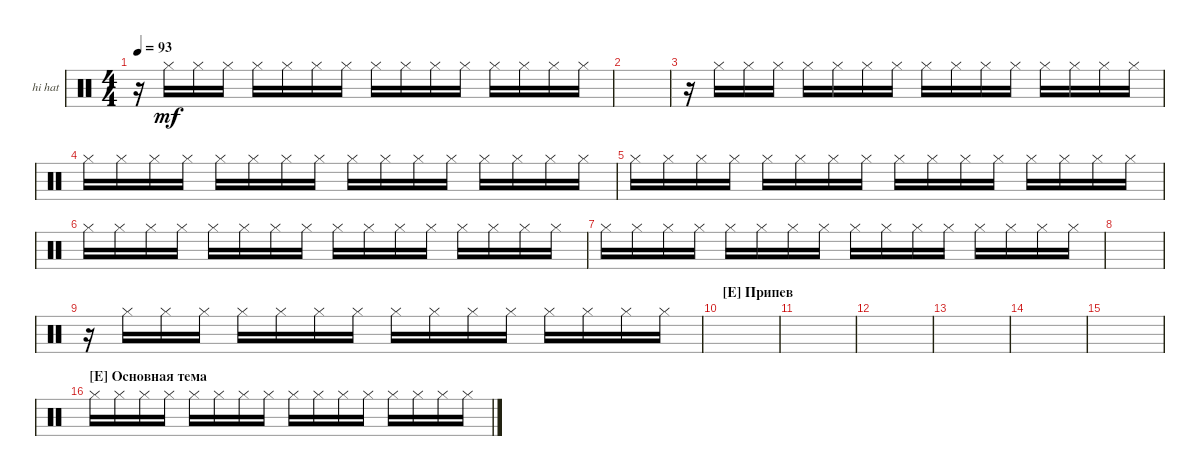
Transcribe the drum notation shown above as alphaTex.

\bracketExtendMode groupsimilarinstruments
\firstSystemTrackNameOrientation horizontal
\otherSystemsTrackNameOrientation horizontal
\track ("hi hat" "hi hat") {instrument percussion}
\staff {score}
\articulation defaults
\ts (4 4)
\tempo 93
\clef neutral
\scale
0.333333
\ks c
r.16{dy mf} "Hi-Hat (closed)".16 "Hi-Hat (closed)".16 "Hi-Hat (closed)".16 "Hi-Hat (closed)".16 "Hi-Hat (closed)".16 "Hi-Hat (closed)".16 "Hi-Hat (closed)".16 "Hi-Hat (closed)".16 "Hi-Hat (closed)".16 "Hi-Hat (closed)".16 "Hi-Hat (closed)".16 "Hi-Hat (closed)".16 "Hi-Hat (closed)".16 "Hi-Hat (closed)".16 "Hi-Hat (closed)".16 |
\scale
0.333333 |
\scale
0.333333 r.16 "Hi-Hat (closed)".16 "Hi-Hat (closed)".16 "Hi-Hat (closed)".16 "Hi-Hat (closed)".16 "Hi-Hat (closed)".16 "Hi-Hat (closed)".16 "Hi-Hat (closed)".16 "Hi-Hat (closed)".16 "Hi-Hat (closed)".16 "Hi-Hat (closed)".16 "Hi-Hat (closed)".16 "Hi-Hat (closed)".16 "Hi-Hat (closed)".16 "Hi-Hat (closed)".16 "Hi-Hat (closed)".16 |
\scale
0.333333 "Hi-Hat (closed)".16 "Hi-Hat (closed)".16 "Hi-Hat (closed)".16 "Hi-Hat (closed)".16 "Hi-Hat (closed)".16 "Hi-Hat (closed)".16 "Hi-Hat (closed)".16 "Hi-Hat (closed)".16 "Hi-Hat (closed)".16 "Hi-Hat (closed)".16 "Hi-Hat (closed)".16 "Hi-Hat (closed)".16 "Hi-Hat (closed)".16 "Hi-Hat (closed)".16 "Hi-Hat (closed)".16 "Hi-Hat (closed)".16 |
\scale
0.333333 "Hi-Hat (closed)".16 "Hi-Hat (closed)".16 "Hi-Hat (closed)".16 "Hi-Hat (closed)".16 "Hi-Hat (closed)".16 "Hi-Hat (closed)".16 "Hi-Hat (closed)".16 "Hi-Hat (closed)".16 "Hi-Hat (closed)".16 "Hi-Hat (closed)".16 "Hi-Hat (closed)".16 "Hi-Hat (closed)".16 "Hi-Hat (closed)".16 "Hi-Hat (closed)".16 "Hi-Hat (closed)".16 "Hi-Hat (closed)".16 |
\scale
0.333333 "Hi-Hat (closed)".16 "Hi-Hat (closed)".16 "Hi-Hat (closed)".16 "Hi-Hat (closed)".16 "Hi-Hat (closed)".16 "Hi-Hat (closed)".16 "Hi-Hat (closed)".16 "Hi-Hat (closed)".16 "Hi-Hat (closed)".16 "Hi-Hat (closed)".16 "Hi-Hat (closed)".16 "Hi-Hat (closed)".16 "Hi-Hat (closed)".16 "Hi-Hat (closed)".16 "Hi-Hat (closed)".16 "Hi-Hat (closed)".16 |
\scale
0.333333 "Hi-Hat (closed)".16 "Hi-Hat (closed)".16 "Hi-Hat (closed)".16 "Hi-Hat (closed)".16 "Hi-Hat (closed)".16 "Hi-Hat (closed)".16 "Hi-Hat (closed)".16 "Hi-Hat (closed)".16 "Hi-Hat (closed)".16 "Hi-Hat (closed)".16 "Hi-Hat (closed)".16 "Hi-Hat (closed)".16 "Hi-Hat (closed)".16 "Hi-Hat (closed)".16 "Hi-Hat (closed)".16 "Hi-Hat (closed)".16 |
\scale
0.333333 |
\scale
0.333333 r.16 "Hi-Hat (closed)".16 "Hi-Hat (closed)".16 "Hi-Hat (closed)".16 "Hi-Hat (closed)".16 "Hi-Hat (closed)".16 "Hi-Hat (closed)".16 "Hi-Hat (closed)".16 "Hi-Hat (closed)".16 "Hi-Hat (closed)".16 "Hi-Hat (closed)".16 "Hi-Hat (closed)".16 "Hi-Hat (closed)".16 "Hi-Hat (closed)".16 "Hi-Hat (closed)".16 "Hi-Hat (closed)".16 |
\section ("E" "Припев")
\scale
0.333333 |
\scale
0.333333 |
\scale
0.333333 |
\scale
0.333333 |
\scale
0.333333 |
\scale
0.333333 |
\section ("E" "Основная тема")
\scale
0.333333 "Hi-Hat (closed)".16 "Hi-Hat (closed)".16 "Hi-Hat (closed)".16 "Hi-Hat (closed)".16 "Hi-Hat (closed)".16 "Hi-Hat (closed)".16 "Hi-Hat (closed)".16 "Hi-Hat (closed)".16 "Hi-Hat (closed)".16 "Hi-Hat (closed)".16 "Hi-Hat (closed)".16 "Hi-Hat (closed)".16 "Hi-Hat (closed)".16 "Hi-Hat (closed)".16 "Hi-Hat (closed)".16 "Hi-Hat (closed)".16
